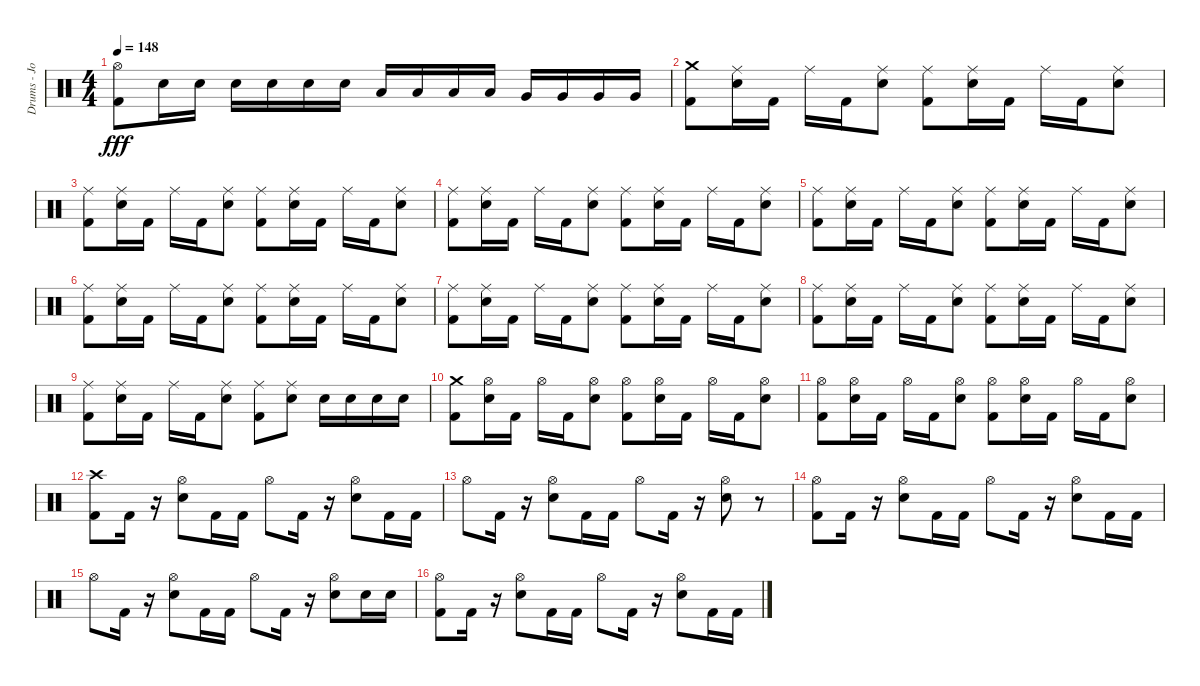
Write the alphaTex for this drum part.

\track ("Drums - Jordan" "Drums - Jo") {instrument percussion}
\staff {score}
\articulation defaults
\ts (4 4)
\tempo 148
\clef neutral
\ks c
("Hi-Hat (open)" "Kick (hit) 2").8{dy fff} "Electric Snare (hit)".16 "Electric Snare (hit)".16 "Electric Snare (hit)".16 "Electric Snare (hit)".16 "Electric Snare (hit)".16 "Electric Snare (hit)".16 "Low Tom (hit)".16 "Low Tom (hit)".16 "Low Tom (hit)".16 "Low Tom (hit)".16 "Very Low Tom (hit)".16 "Very Low Tom (hit)".16 "Very Low Tom (hit)".16 "Very Low Tom (hit)".16 |
("Kick (hit) 2" "Crash medium (hit)").8 ("Electric Snare (hit)" "Ride (middle)").16 "Kick (hit) 2".16 "Ride (middle)".16 "Kick (hit) 2".16 ("Electric Snare (hit)" "Ride (middle)").8 ("Kick (hit) 2" "Ride (middle)").8 ("Electric Snare (hit)" "Ride (middle)").16 "Kick (hit) 2".16 "Ride (middle)".16 "Kick (hit) 2".16 ("Electric Snare (hit)" "Ride (middle)").8 |
("Kick (hit) 2" "Ride (middle)").8 ("Electric Snare (hit)" "Ride (middle)").16 "Kick (hit) 2".16 "Ride (middle)".16 "Kick (hit) 2".16 ("Electric Snare (hit)" "Ride (middle)").8 ("Kick (hit) 2" "Ride (middle)").8 ("Electric Snare (hit)" "Ride (middle)").16 "Kick (hit) 2".16 "Ride (middle)".16 "Kick (hit) 2".16 ("Electric Snare (hit)" "Ride (middle)").8 |
("Kick (hit) 2" "Ride (middle)").8 ("Electric Snare (hit)" "Ride (middle)").16 "Kick (hit) 2".16 "Ride (middle)".16 "Kick (hit) 2".16 ("Electric Snare (hit)" "Ride (middle)").8 ("Kick (hit) 2" "Ride (middle)").8 ("Electric Snare (hit)" "Ride (middle)").16 "Kick (hit) 2".16 "Ride (middle)".16 "Kick (hit) 2".16 ("Electric Snare (hit)" "Ride (middle)").8 |
("Kick (hit) 2" "Ride (middle)").8 ("Electric Snare (hit)" "Ride (middle)").16 "Kick (hit) 2".16 "Ride (middle)".16 "Kick (hit) 2".16 ("Electric Snare (hit)" "Ride (middle)").8 ("Kick (hit) 2" "Ride (middle)").8 ("Electric Snare (hit)" "Ride (middle)").16 "Kick (hit) 2".16 "Ride (middle)".16 "Kick (hit) 2".16 ("Electric Snare (hit)" "Ride (middle)").8 |
("Kick (hit) 2" "Ride (middle)").8 ("Electric Snare (hit)" "Ride (middle)").16 "Kick (hit) 2".16 "Ride (middle)".16 "Kick (hit) 2".16 ("Electric Snare (hit)" "Ride (middle)").8 ("Kick (hit) 2" "Ride (middle)").8 ("Electric Snare (hit)" "Ride (middle)").16 "Kick (hit) 2".16 "Ride (middle)".16 "Kick (hit) 2".16 ("Electric Snare (hit)" "Ride (middle)").8 |
("Kick (hit) 2" "Ride (middle)").8 ("Electric Snare (hit)" "Ride (middle)").16 "Kick (hit) 2".16 "Ride (middle)".16 "Kick (hit) 2".16 ("Electric Snare (hit)" "Ride (middle)").8 ("Kick (hit) 2" "Ride (middle)").8 ("Electric Snare (hit)" "Ride (middle)").16 "Kick (hit) 2".16 "Ride (middle)".16 "Kick (hit) 2".16 ("Electric Snare (hit)" "Ride (middle)").8 |
("Kick (hit) 2" "Ride (middle)").8 ("Electric Snare (hit)" "Ride (middle)").16 "Kick (hit) 2".16 "Ride (middle)".16 "Kick (hit) 2".16 ("Electric Snare (hit)" "Ride (middle)").8 ("Kick (hit) 2" "Ride (middle)").8 ("Electric Snare (hit)" "Ride (middle)").16 "Kick (hit) 2".16 "Ride (middle)".16 "Kick (hit) 2".16 ("Electric Snare (hit)" "Ride (middle)").8 |
("Kick (hit) 2" "Ride (middle)").8 ("Electric Snare (hit)" "Ride (middle)").16 "Kick (hit) 2".16 "Ride (middle)".16 "Kick (hit) 2".16 ("Electric Snare (hit)" "Ride (middle)").8 ("Kick (hit) 2" "Ride (middle)").8 ("Ride (middle)" "Electric Snare (hit)").8 "Electric Snare (hit)".16 "Electric Snare (hit)".16 "Electric Snare (hit)".16 "Electric Snare (hit)".16 |
("Kick (hit) 2" "Crash medium (hit)").8 ("Hi-Hat (open)" "Electric Snare (hit)").16 "Kick (hit) 2".16 "Hi-Hat (open)".16 "Kick (hit) 2".16 ("Hi-Hat (open)" "Electric Snare (hit)").8 ("Hi-Hat (open)" "Kick (hit) 2").8 ("Hi-Hat (open)" "Electric Snare (hit)").16 "Kick (hit) 2".16 "Hi-Hat (open)".16 "Kick (hit) 2".16 ("Hi-Hat (open)" "Electric Snare (hit)").8 |
("Hi-Hat (open)" "Kick (hit) 2").8 ("Hi-Hat (open)" "Electric Snare (hit)").16 "Kick (hit) 2".16 "Hi-Hat (open)".16 "Kick (hit) 2".16 ("Hi-Hat (open)" "Electric Snare (hit)").8 ("Hi-Hat (open)" "Kick (hit) 2").8 ("Hi-Hat (open)" "Electric Snare (hit)").16 "Kick (hit) 2".16 "Hi-Hat (open)".16 "Kick (hit) 2".16 ("Hi-Hat (open)" "Electric Snare (hit)").8 |
("Kick (hit) 2" "Crash high (hit)").8 "Kick (hit) 2".16 r.16 ("Electric Snare (hit)" "Hi-Hat (open)").8 "Kick (hit) 2".16 "Kick (hit) 2".16 "Hi-Hat (open)".8 "Kick (hit) 2".16 r.16 ("Electric Snare (hit)" "Hi-Hat (open)").8 "Kick (hit) 2".16 "Kick (hit) 2".16 |
"Hi-Hat (open)".8 "Kick (hit) 2".16 r.16 ("Electric Snare (hit)" "Hi-Hat (open)").8 "Kick (hit) 2".16 "Kick (hit) 2".16 "Hi-Hat (open)".8 "Kick (hit) 2".16 r.16 ("Electric Snare (hit)" "Hi-Hat (open)").8 r.8 |
("Kick (hit) 2" "Hi-Hat (open)").8 "Kick (hit) 2".16 r.16 ("Electric Snare (hit)" "Hi-Hat (open)").8 "Kick (hit) 2".16 "Kick (hit) 2".16 "Hi-Hat (open)".8 "Kick (hit) 2".16 r.16 ("Electric Snare (hit)" "Hi-Hat (open)").8 "Kick (hit) 2".16 "Kick (hit) 2".16 |
"Hi-Hat (open)".8 "Kick (hit) 2".16 r.16 ("Electric Snare (hit)" "Hi-Hat (open)").8 "Kick (hit) 2".16 "Kick (hit) 2".16 "Hi-Hat (open)".8 "Kick (hit) 2".16 r.16 ("Electric Snare (hit)" "Hi-Hat (open)").8 "Electric Snare (hit)".16 "Electric Snare (hit)".16 |
("Kick (hit) 2" "Hi-Hat (open)").8 "Kick (hit) 2".16 r.16 ("Electric Snare (hit)" "Hi-Hat (open)").8 "Kick (hit) 2".16 "Kick (hit) 2".16 "Hi-Hat (open)".8 "Kick (hit) 2".16 r.16 ("Electric Snare (hit)" "Hi-Hat (open)").8 "Kick (hit) 2".16 "Kick (hit) 2".16
